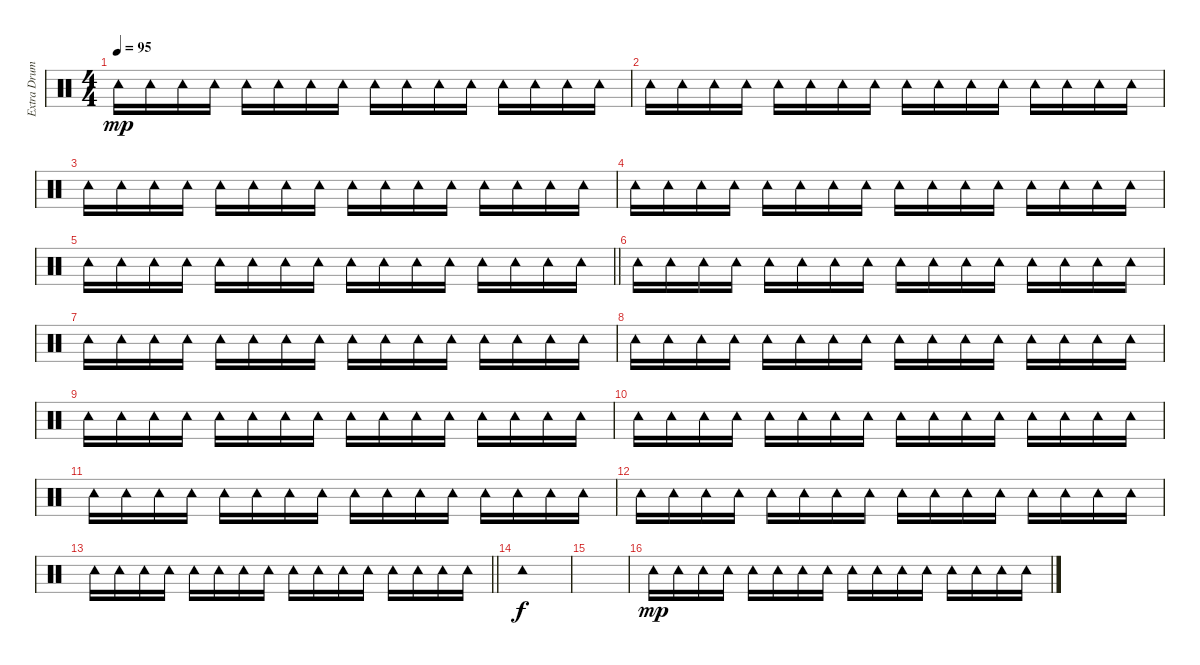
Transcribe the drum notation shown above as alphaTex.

\track ("Extra Drums" "Extra Drum") {instrument percussion}
\staff {score}
\articulation defaults
\ts (4 4)
\tempo 95
\clef neutral
\ks c "Tambourine (hit)".16{dy mp} "Tambourine (hit)".16 "Tambourine (hit)".16 "Tambourine (hit)".16 "Tambourine (hit)".16 "Tambourine (hit)".16 "Tambourine (hit)".16 "Tambourine (hit)".16 "Tambourine (hit)".16 "Tambourine (hit)".16 "Tambourine (hit)".16 "Tambourine (hit)".16 "Tambourine (hit)".16 "Tambourine (hit)".16 "Tambourine (hit)".16 "Tambourine (hit)".16
|
"Tambourine (hit)".16 "Tambourine (hit)".16 "Tambourine (hit)".16 "Tambourine (hit)".16 "Tambourine (hit)".16 "Tambourine (hit)".16 "Tambourine (hit)".16 "Tambourine (hit)".16 "Tambourine (hit)".16 "Tambourine (hit)".16 "Tambourine (hit)".16 "Tambourine (hit)".16 "Tambourine (hit)".16 "Tambourine (hit)".16 "Tambourine (hit)".16 "Tambourine (hit)".16 |
"Tambourine (hit)".16 "Tambourine (hit)".16 "Tambourine (hit)".16 "Tambourine (hit)".16 "Tambourine (hit)".16 "Tambourine (hit)".16 "Tambourine (hit)".16 "Tambourine (hit)".16 "Tambourine (hit)".16 "Tambourine (hit)".16 "Tambourine (hit)".16 "Tambourine (hit)".16 "Tambourine (hit)".16 "Tambourine (hit)".16 "Tambourine (hit)".16 "Tambourine (hit)".16 |
"Tambourine (hit)".16 "Tambourine (hit)".16 "Tambourine (hit)".16 "Tambourine (hit)".16 "Tambourine (hit)".16 "Tambourine (hit)".16 "Tambourine (hit)".16 "Tambourine (hit)".16 "Tambourine (hit)".16 "Tambourine (hit)".16 "Tambourine (hit)".16 "Tambourine (hit)".16 "Tambourine (hit)".16 "Tambourine (hit)".16 "Tambourine (hit)".16 "Tambourine (hit)".16 |
\barLineRight lightlight "Tambourine (hit)".16 "Tambourine (hit)".16 "Tambourine (hit)".16 "Tambourine (hit)".16 "Tambourine (hit)".16 "Tambourine (hit)".16 "Tambourine (hit)".16 "Tambourine (hit)".16 "Tambourine (hit)".16 "Tambourine (hit)".16 "Tambourine (hit)".16 "Tambourine (hit)".16 "Tambourine (hit)".16 "Tambourine (hit)".16 "Tambourine (hit)".16 "Tambourine (hit)".16
|
"Tambourine (hit)".16 "Tambourine (hit)".16 "Tambourine (hit)".16 "Tambourine (hit)".16 "Tambourine (hit)".16 "Tambourine (hit)".16 "Tambourine (hit)".16 "Tambourine (hit)".16 "Tambourine (hit)".16 "Tambourine (hit)".16 "Tambourine (hit)".16 "Tambourine (hit)".16 "Tambourine (hit)".16 "Tambourine (hit)".16 "Tambourine (hit)".16 "Tambourine (hit)".16 |
"Tambourine (hit)".16 "Tambourine (hit)".16 "Tambourine (hit)".16 "Tambourine (hit)".16 "Tambourine (hit)".16 "Tambourine (hit)".16 "Tambourine (hit)".16 "Tambourine (hit)".16 "Tambourine (hit)".16 "Tambourine (hit)".16 "Tambourine (hit)".16 "Tambourine (hit)".16 "Tambourine (hit)".16 "Tambourine (hit)".16 "Tambourine (hit)".16 "Tambourine (hit)".16 |
"Tambourine (hit)".16 "Tambourine (hit)".16 "Tambourine (hit)".16 "Tambourine (hit)".16 "Tambourine (hit)".16 "Tambourine (hit)".16 "Tambourine (hit)".16 "Tambourine (hit)".16 "Tambourine (hit)".16 "Tambourine (hit)".16 "Tambourine (hit)".16 "Tambourine (hit)".16 "Tambourine (hit)".16 "Tambourine (hit)".16 "Tambourine (hit)".16 "Tambourine (hit)".16 |
"Tambourine (hit)".16 "Tambourine (hit)".16 "Tambourine (hit)".16 "Tambourine (hit)".16 "Tambourine (hit)".16 "Tambourine (hit)".16 "Tambourine (hit)".16 "Tambourine (hit)".16 "Tambourine (hit)".16 "Tambourine (hit)".16 "Tambourine (hit)".16 "Tambourine (hit)".16 "Tambourine (hit)".16 "Tambourine (hit)".16 "Tambourine (hit)".16 "Tambourine (hit)".16 |
"Tambourine (hit)".16 "Tambourine (hit)".16 "Tambourine (hit)".16 "Tambourine (hit)".16 "Tambourine (hit)".16 "Tambourine (hit)".16 "Tambourine (hit)".16 "Tambourine (hit)".16 "Tambourine (hit)".16 "Tambourine (hit)".16 "Tambourine (hit)".16 "Tambourine (hit)".16 "Tambourine (hit)".16 "Tambourine (hit)".16 "Tambourine (hit)".16 "Tambourine (hit)".16 |
"Tambourine (hit)".16 "Tambourine (hit)".16 "Tambourine (hit)".16 "Tambourine (hit)".16 "Tambourine (hit)".16 "Tambourine (hit)".16 "Tambourine (hit)".16 "Tambourine (hit)".16 "Tambourine (hit)".16 "Tambourine (hit)".16 "Tambourine (hit)".16 "Tambourine (hit)".16 "Tambourine (hit)".16 "Tambourine (hit)".16 "Tambourine (hit)".16 "Tambourine (hit)".16 |
"Tambourine (hit)".16 "Tambourine (hit)".16 "Tambourine (hit)".16 "Tambourine (hit)".16 "Tambourine (hit)".16 "Tambourine (hit)".16 "Tambourine (hit)".16 "Tambourine (hit)".16 "Tambourine (hit)".16 "Tambourine (hit)".16 "Tambourine (hit)".16 "Tambourine (hit)".16 "Tambourine (hit)".16 "Tambourine (hit)".16 "Tambourine (hit)".16 "Tambourine (hit)".16 |
\barLineRight lightlight "Tambourine (hit)".16 "Tambourine (hit)".16 "Tambourine (hit)".16 "Tambourine (hit)".16 "Tambourine (hit)".16 "Tambourine (hit)".16 "Tambourine (hit)".16 "Tambourine (hit)".16 "Tambourine (hit)".16 "Tambourine (hit)".16 "Tambourine (hit)".16 "Tambourine (hit)".16 "Tambourine (hit)".16 "Tambourine (hit)".16 "Tambourine (hit)".16 "Tambourine (hit)".16
|
"Tambourine (hit)".1{dy f} |
|
"Tambourine (hit)".16{dy mp} "Tambourine (hit)".16 "Tambourine (hit)".16 "Tambourine (hit)".16 "Tambourine (hit)".16 "Tambourine (hit)".16 "Tambourine (hit)".16 "Tambourine (hit)".16 "Tambourine (hit)".16 "Tambourine (hit)".16 "Tambourine (hit)".16 "Tambourine (hit)".16 "Tambourine (hit)".16 "Tambourine (hit)".16 "Tambourine (hit)".16 "Tambourine (hit)".16
